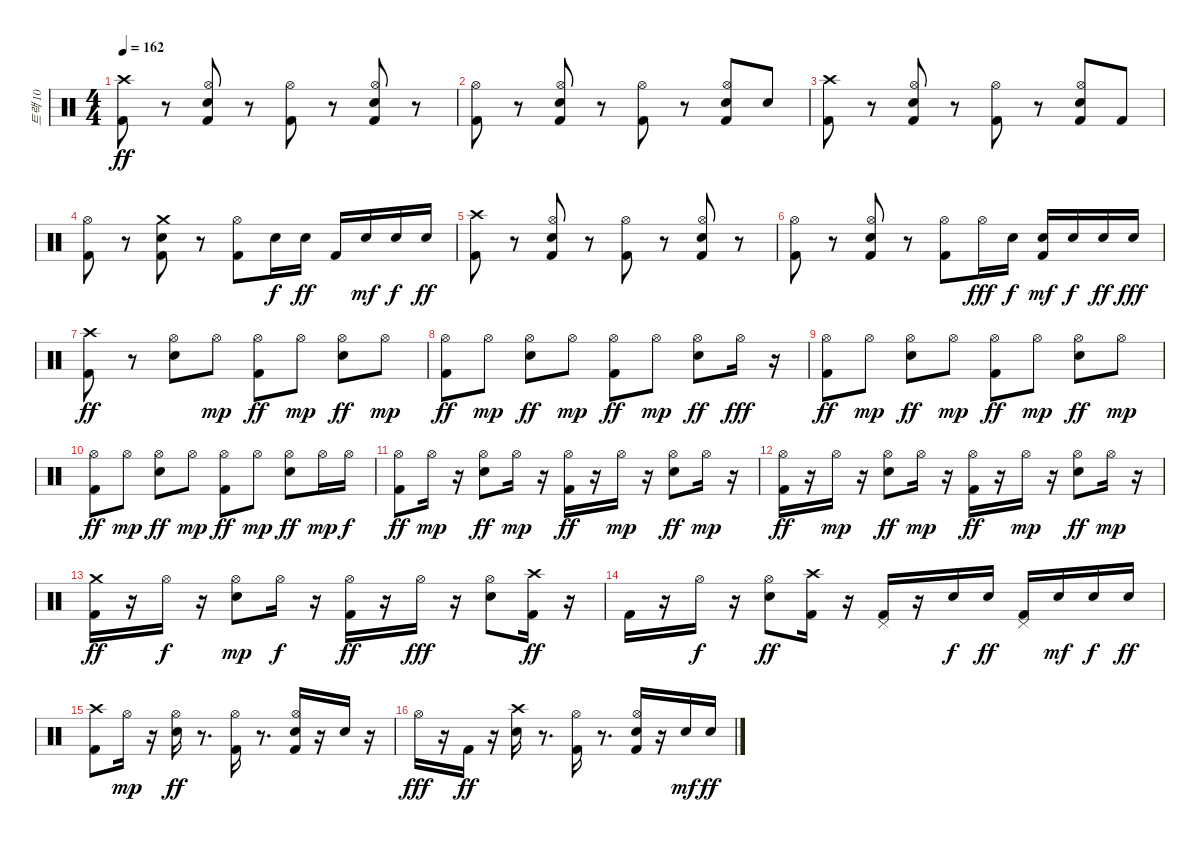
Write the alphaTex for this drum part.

\track ("트랙 10" "트랙 10") {instrument percussion}
\staff {score}
\articulation defaults
\ts (4 4)
\tempo 162
\clef neutral
\ks c
("Kick (hit) 2" "Crash high (hit)").8{dy ff} r.8 ("Hi-Hat (open)" "Kick (hit) 2" "Electric Snare (hit)").8 r.8 ("Hi-Hat (open)" "Kick (hit) 2").8 r.8 ("Hi-Hat (open)" "Kick (hit) 2" "Electric Snare (hit)").8 r.8 |
("Hi-Hat (open)" "Kick (hit) 2").8 r.8 ("Hi-Hat (open)" "Kick (hit) 2" "Electric Snare (hit)").8 r.8 ("Hi-Hat (open)" "Kick (hit) 2").8 r.8 ("Hi-Hat (open)" "Kick (hit) 2" "Electric Snare (hit)").8 "Electric Snare (hit)".8 |
("Kick (hit) 2" "Crash high (hit)").8 r.8 ("Hi-Hat (open)" "Kick (hit) 2" "Electric Snare (hit)").8 r.8 ("Hi-Hat (open)" "Kick (hit) 2").8 r.8 ("Hi-Hat (open)" "Kick (hit) 2" "Electric Snare (hit)").8 "Kick (hit) 2".8 |
("Hi-Hat (open)" "Kick (hit) 2").8 r.8 ("Kick (hit) 2" "Electric Snare (hit)" "Crash medium (hit)").8 r.8 ("Hi-Hat (open)" "Kick (hit) 2").8 "Electric Snare (hit)".16{dy f} "Electric Snare (hit)".16{dy ff} "Kick (hit) 2".16 "Electric Snare (hit)".16{dy mf} "Electric Snare (hit)".16{dy f} "Electric Snare (hit)".16{dy ff} |
("Kick (hit) 2" "Crash high (hit)").8 r.8 ("Hi-Hat (open)" "Kick (hit) 2" "Electric Snare (hit)").8 r.8 ("Hi-Hat (open)" "Kick (hit) 2").8 r.8 ("Hi-Hat (open)" "Kick (hit) 2" "Electric Snare (hit)").8 r.8 |
("Hi-Hat (open)" "Kick (hit) 2").8 r.8 ("Hi-Hat (open)" "Kick (hit) 2" "Electric Snare (hit)").8 r.8 ("Hi-Hat (open)" "Kick (hit) 2").8 "Hi-Hat (open)".16{dy fff} "Electric Snare (hit)".16{dy f} ("Kick (hit) 2" "Electric Snare (hit)").16{dy mf} "Electric Snare (hit)".16{dy f} "Electric Snare (hit)".16{dy ff} "Electric Snare (hit)".16{dy fff} |
("Kick (hit) 2" "Crash high (hit)").8{dy ff} r.8 ("Electric Snare (hit)" "Hi-Hat (open)").8 "Hi-Hat (open)".8{dy mp} ("Kick (hit) 2" "Hi-Hat (open)").8{dy ff} "Hi-Hat (open)".8{dy mp} ("Electric Snare (hit)" "Hi-Hat (open)").8{dy ff} "Hi-Hat (open)".8{dy mp} |
("Kick (hit) 2" "Hi-Hat (open)").8{dy ff} "Hi-Hat (open)".8{dy mp} ("Electric Snare (hit)" "Hi-Hat (open)").8{dy ff} "Hi-Hat (open)".8{dy mp} ("Kick (hit) 2" "Hi-Hat (open)").8{dy ff} "Hi-Hat (open)".8{dy mp} ("Electric Snare (hit)" "Hi-Hat (open)").8{dy ff} "Hi-Hat (open)".16{dy fff} r.16 |
("Kick (hit) 2" "Hi-Hat (open)").8{dy ff} "Hi-Hat (open)".8{dy mp} ("Electric Snare (hit)" "Hi-Hat (open)").8{dy ff} "Hi-Hat (open)".8{dy mp} ("Kick (hit) 2" "Hi-Hat (open)").8{dy ff} "Hi-Hat (open)".8{dy mp} ("Electric Snare (hit)" "Hi-Hat (open)").8{dy ff} "Hi-Hat (open)".8{dy mp} |
("Kick (hit) 2" "Hi-Hat (open)").8{dy ff} "Hi-Hat (open)".8{dy mp} ("Electric Snare (hit)" "Hi-Hat (open)").8{dy ff} "Hi-Hat (open)".8{dy mp} ("Kick (hit) 2" "Hi-Hat (open)").8{dy ff} "Hi-Hat (open)".8{dy mp} ("Electric Snare (hit)" "Hi-Hat (open)").8{dy ff} "Hi-Hat (open)".16{dy mp} "Hi-Hat (open)".16{dy f} |
("Kick (hit) 2" "Hi-Hat (open)").8{dy ff} "Hi-Hat (open)".16{dy mp} r.16 ("Electric Snare (hit)" "Hi-Hat (open)").8{dy ff} "Hi-Hat (open)".16{dy mp} r.16 ("Kick (hit) 2" "Hi-Hat (open)").16{dy ff} r.16 "Hi-Hat (open)".16{dy mp} r.16 ("Electric Snare (hit)" "Hi-Hat (open)").8{dy ff} "Hi-Hat (open)".16{dy mp} r.16 |
("Kick (hit) 2" "Hi-Hat (open)").16{dy ff} r.16 "Hi-Hat (open)".16{dy mp} r.16 ("Electric Snare (hit)" "Hi-Hat (open)").8{dy ff} "Hi-Hat (open)".16{dy mp} r.16 ("Kick (hit) 2" "Hi-Hat (open)").16{dy ff} r.16 "Hi-Hat (open)".16{dy mp} r.16 ("Electric Snare (hit)" "Hi-Hat (open)").8{dy ff} "Hi-Hat (open)".16{dy mp} r.16 |
("Kick (hit) 2" "Crash medium (hit)").16{dy ff} r.16 "Hi-Hat (open)".16{dy f} r.16 ("Electric Snare (hit)" "Hi-Hat (open)").8{dy mp} "Hi-Hat (open)".16{dy f} r.16 ("Hi-Hat (open)" "Kick (hit) 2").16{dy ff} r.16 "Hi-Hat (open)".16{dy fff} r.16 ("Electric Snare (hit)" "Hi-Hat (open)").8 ("Kick (hit) 2" "Crash high (hit)").16{dy ff} r.16 |
"Kick (hit) 2".16 r.16 "Hi-Hat (open)".16{dy f} r.16 ("Electric Snare (hit)" "Hi-Hat (open)").8{dy ff} ("Kick (hit) 2" "Crash high (hit)").16 r.16 ("Pedal Hi-Hat (hit)" "Kick (hit) 2").16 r.16 "Electric Snare (hit)".16{dy f} "Electric Snare (hit)".16{dy ff} ("Pedal Hi-Hat (hit)" "Kick (hit) 2").16 "Electric Snare (hit)".16{dy mf} "Electric Snare (hit)".16{dy f} "Electric Snare (hit)".16{dy ff} |
("Kick (hit) 2" "Crash high (hit)").8 "Hi-Hat (open)".16{dy mp} r.16 ("Hi-Hat (open)" "Electric Snare (hit)").16{dy ff} r.8{d} ("Hi-Hat (open)" "Kick (hit) 2").16 r.8{d} ("Hi-Hat (open)" "Kick (hit) 2" "Electric Snare (hit)").16 r.16 "Electric Snare (hit)".16 r.16 |
"Hi-Hat (open)".16{dy fff} r.16 "Kick (hit) 2".16{dy ff} r.16 ("Electric Snare (hit)" "Crash high (hit)").16 r.8{d} ("Hi-Hat (open)" "Kick (hit) 2").16 r.8{d} ("Hi-Hat (open)" "Kick (hit) 2" "Electric Snare (hit)").16 r.16 "Electric Snare (hit)".16{dy mf} "Electric Snare (hit)".16{dy ff}
